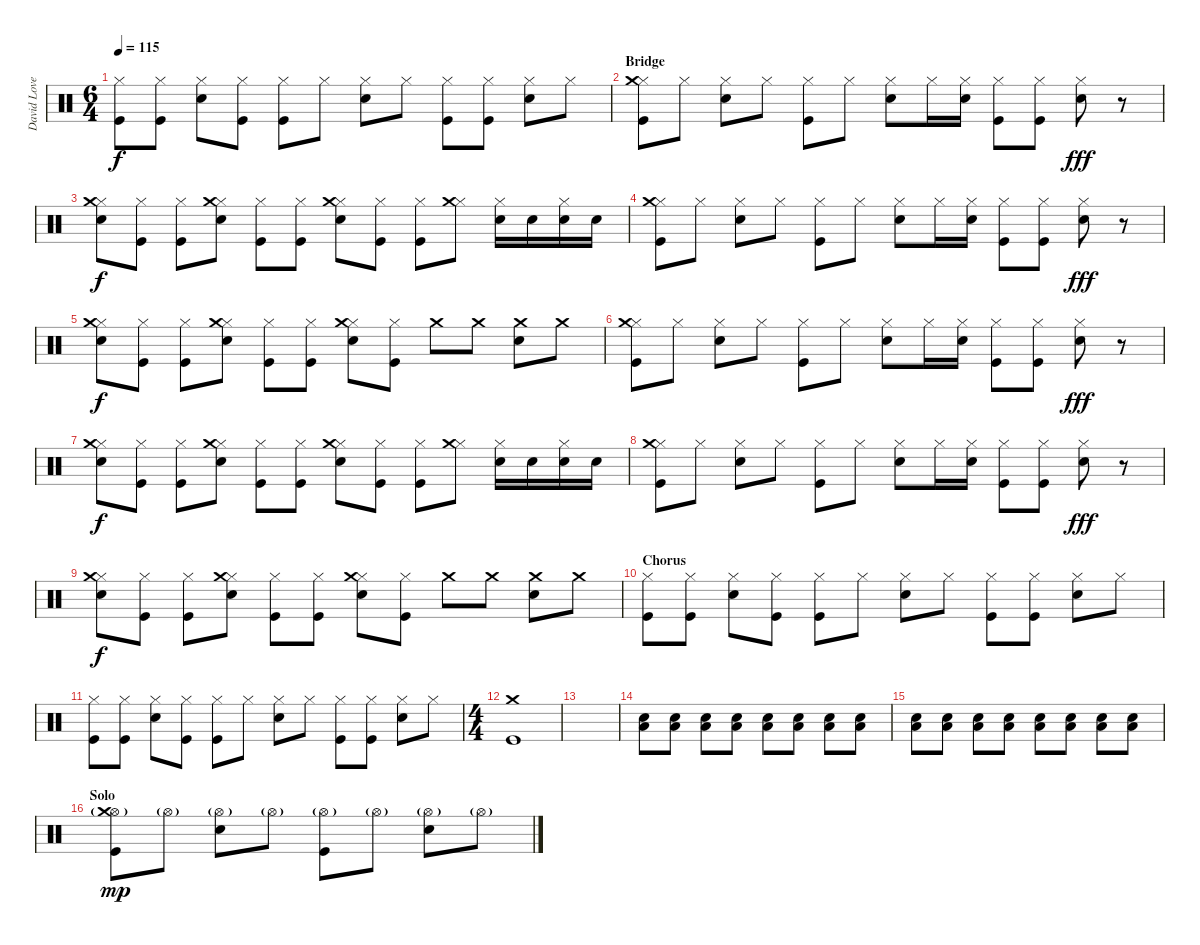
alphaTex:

\track ("David Lovering" "David Love") {instrument percussion}
\staff {score}
\articulation defaults
\ts (6 4)
\tempo 115
\clef neutral
\ks c
("Hi-Hat (closed)" "Kick (hit)").8{dy f} ("Hi-Hat (closed)" "Kick (hit)").8 ("Hi-Hat (closed)" "Snare (hit) 2").8 ("Hi-Hat (closed)" "Kick (hit)").8 ("Hi-Hat (closed)" "Kick (hit)").8 "Hi-Hat (closed)".8 ("Hi-Hat (closed)" "Snare (hit) 2").8 "Hi-Hat (closed)".8 ("Hi-Hat (closed)" "Kick (hit)").8 ("Hi-Hat (closed)" "Kick (hit)").8 ("Hi-Hat (closed)" "Snare (hit) 2").8 "Hi-Hat (closed)".8 |
\section ("" "Bridge")
("Hi-Hat (closed)" "Crash medium (hit)" "Kick (hit)").8 "Hi-Hat (closed)".8 ("Hi-Hat (closed)" "Snare (hit) 2").8 "Hi-Hat (closed)".8 ("Hi-Hat (closed)" "Kick (hit)").8 "Hi-Hat (closed)".8 ("Hi-Hat (closed)" "Snare (hit) 2").8 "Hi-Hat (closed)".16 ("Hi-Hat (closed)" "Snare (hit) 2").16 ("Hi-Hat (closed)" "Kick (hit)").8 ("Hi-Hat (closed)" "Kick (hit)").8 ("Hi-Hat (closed)" "Snare (hit) 2").8{dy fff} r.8 |
("Hi-Hat (closed)" "Crash medium (hit)" "Snare (hit) 2").8{dy f} ("Hi-Hat (closed)" "Kick (hit)").8 ("Hi-Hat (closed)" "Kick (hit)").8 ("Hi-Hat (closed)" "Crash medium (hit)" "Snare (hit) 2").8 ("Hi-Hat (closed)" "Kick (hit)").8 ("Hi-Hat (closed)" "Kick (hit)").8 ("Hi-Hat (closed)" "Crash medium (hit)" "Snare (hit) 2").8 ("Hi-Hat (closed)" "Kick (hit)").8 ("Hi-Hat (closed)" "Kick (hit)").8 ("Hi-Hat (closed)" "Crash medium (hit)").8 ("Hi-Hat (closed)" "Snare (hit) 2").16 "Snare (hit) 2".16 ("Hi-Hat (closed)" "Snare (hit) 2").16 "Snare (hit) 2".16 |
("Hi-Hat (closed)" "Crash medium (hit)" "Kick (hit)").8 "Hi-Hat (closed)".8 ("Hi-Hat (closed)" "Snare (hit) 2").8 "Hi-Hat (closed)".8 ("Hi-Hat (closed)" "Kick (hit)").8 "Hi-Hat (closed)".8 ("Hi-Hat (closed)" "Snare (hit) 2").8 "Hi-Hat (closed)".16 ("Hi-Hat (closed)" "Snare (hit) 2").16 ("Hi-Hat (closed)" "Kick (hit)").8 ("Hi-Hat (closed)" "Kick (hit)").8 ("Hi-Hat (closed)" "Snare (hit) 2").8{dy fff} r.8 |
("Hi-Hat (closed)" "Crash medium (hit)" "Snare (hit) 2").8{dy f} ("Hi-Hat (closed)" "Kick (hit)").8 ("Hi-Hat (closed)" "Kick (hit)").8 ("Hi-Hat (closed)" "Crash medium (hit)" "Snare (hit) 2").8 ("Hi-Hat (closed)" "Kick (hit)").8 ("Hi-Hat (closed)" "Kick (hit)").8 ("Hi-Hat (closed)" "Crash medium (hit)" "Snare (hit) 2").8 ("Hi-Hat (closed)" "Kick (hit)").8 "Crash medium (hit)".8 "Crash medium (hit)".8 ("Crash medium (hit)" "Snare (hit) 2").8 "Crash medium (hit)".8 |
("Hi-Hat (closed)" "Crash medium (hit)" "Kick (hit)").8 "Hi-Hat (closed)".8 ("Hi-Hat (closed)" "Snare (hit) 2").8 "Hi-Hat (closed)".8 ("Hi-Hat (closed)" "Kick (hit)").8 "Hi-Hat (closed)".8 ("Hi-Hat (closed)" "Snare (hit) 2").8 "Hi-Hat (closed)".16 ("Hi-Hat (closed)" "Snare (hit) 2").16 ("Hi-Hat (closed)" "Kick (hit)").8 ("Hi-Hat (closed)" "Kick (hit)").8 ("Hi-Hat (closed)" "Snare (hit) 2").8{dy fff} r.8 |
("Hi-Hat (closed)" "Crash medium (hit)" "Snare (hit) 2").8{dy f} ("Hi-Hat (closed)" "Kick (hit)").8 ("Hi-Hat (closed)" "Kick (hit)").8 ("Hi-Hat (closed)" "Crash medium (hit)" "Snare (hit) 2").8 ("Hi-Hat (closed)" "Kick (hit)").8 ("Hi-Hat (closed)" "Kick (hit)").8 ("Hi-Hat (closed)" "Crash medium (hit)" "Snare (hit) 2").8 ("Hi-Hat (closed)" "Kick (hit)").8 ("Hi-Hat (closed)" "Kick (hit)").8 ("Hi-Hat (closed)" "Crash medium (hit)").8 ("Hi-Hat (closed)" "Snare (hit) 2").16 "Snare (hit) 2".16 ("Hi-Hat (closed)" "Snare (hit) 2").16 "Snare (hit) 2".16 |
("Hi-Hat (closed)" "Crash medium (hit)" "Kick (hit)").8 "Hi-Hat (closed)".8 ("Hi-Hat (closed)" "Snare (hit) 2").8 "Hi-Hat (closed)".8 ("Hi-Hat (closed)" "Kick (hit)").8 "Hi-Hat (closed)".8 ("Hi-Hat (closed)" "Snare (hit) 2").8 "Hi-Hat (closed)".16 ("Hi-Hat (closed)" "Snare (hit) 2").16 ("Hi-Hat (closed)" "Kick (hit)").8 ("Hi-Hat (closed)" "Kick (hit)").8 ("Hi-Hat (closed)" "Snare (hit) 2").8{dy fff} r.8 |
("Hi-Hat (closed)" "Crash medium (hit)" "Snare (hit) 2").8{dy f} ("Hi-Hat (closed)" "Kick (hit)").8 ("Hi-Hat (closed)" "Kick (hit)").8 ("Hi-Hat (closed)" "Crash medium (hit)" "Snare (hit) 2").8 ("Hi-Hat (closed)" "Kick (hit)").8 ("Hi-Hat (closed)" "Kick (hit)").8 ("Hi-Hat (closed)" "Crash medium (hit)" "Snare (hit) 2").8 ("Hi-Hat (closed)" "Kick (hit)").8 "Crash medium (hit)".8 "Crash medium (hit)".8 ("Crash medium (hit)" "Snare (hit) 2").8 "Crash medium (hit)".8 |
\section ("" "Chorus")
("Hi-Hat (closed)" "Kick (hit)").8 ("Hi-Hat (closed)" "Kick (hit)").8 ("Hi-Hat (closed)" "Snare (hit) 2").8 ("Hi-Hat (closed)" "Kick (hit)").8 ("Hi-Hat (closed)" "Kick (hit)").8 "Hi-Hat (closed)".8 ("Hi-Hat (closed)" "Snare (hit) 2").8 "Hi-Hat (closed)".8 ("Hi-Hat (closed)" "Kick (hit)").8 ("Hi-Hat (closed)" "Kick (hit)").8 ("Hi-Hat (closed)" "Snare (hit) 2").8 "Hi-Hat (closed)".8 |
("Hi-Hat (closed)" "Kick (hit)").8 ("Hi-Hat (closed)" "Kick (hit)").8 ("Hi-Hat (closed)" "Snare (hit) 2").8 ("Hi-Hat (closed)" "Kick (hit)").8 ("Hi-Hat (closed)" "Kick (hit)").8 "Hi-Hat (closed)".8 ("Hi-Hat (closed)" "Snare (hit) 2").8 "Hi-Hat (closed)".8 ("Hi-Hat (closed)" "Kick (hit)").8 ("Hi-Hat (closed)" "Kick (hit)").8 ("Hi-Hat (closed)" "Snare (hit) 2").8 "Hi-Hat (closed)".8 |
\ts (4 4)
\section ("" "")
("Crash medium (hit)" "Kick (hit)").1 |
|
("Snare (hit) 2" "Low Floor Tom (hit)").8 ("Snare (hit) 2" "Low Floor Tom (hit)").8 ("Snare (hit) 2" "Low Floor Tom (hit)").8 ("Snare (hit) 2" "Low Floor Tom (hit)").8 ("Snare (hit) 2" "Low Floor Tom (hit)").8 ("Snare (hit) 2" "Low Floor Tom (hit)").8 ("Snare (hit) 2" "Low Floor Tom (hit)").8 ("Snare (hit) 2" "Low Floor Tom (hit)").8 |
("Snare (hit) 2" "Low Floor Tom (hit)").8 ("Snare (hit) 2" "Low Floor Tom (hit)").8 ("Snare (hit) 2" "Low Floor Tom (hit)").8 ("Snare (hit) 2" "Low Floor Tom (hit)").8 ("Snare (hit) 2" "Low Floor Tom (hit)").8 ("Snare (hit) 2" "Low Floor Tom (hit)").8 ("Snare (hit) 2" "Low Floor Tom (hit)").8 ("Snare (hit) 2" "Low Floor Tom (hit)").8 |
\section ("" "Solo")
("Hi-Hat (open)"{g} "Crash medium (hit)" "Kick (hit)").8{dy mp} "Hi-Hat (open)"{g}.8 ("Hi-Hat (open)"{g} "Snare (hit) 2").8 "Hi-Hat (open)"{g}.8 ("Hi-Hat (open)"{g} "Kick (hit)").8 "Hi-Hat (open)"{g}.8 ("Hi-Hat (open)"{g} "Snare (hit) 2").8 "Hi-Hat (open)"{g}.8
